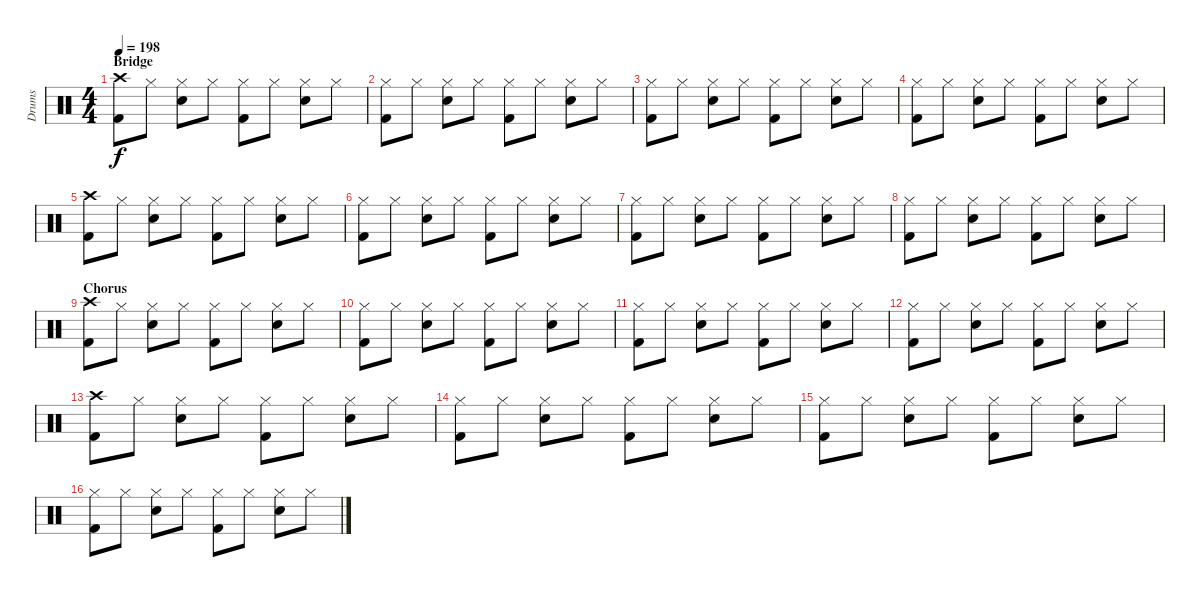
\track ("Drums" "Drums") {instrument percussion}
\staff {score}
\articulation defaults
\ts (4 4)
\section ("" "Bridge")
\tempo 198
\clef neutral
\ks c
("Crash high (hit)" "Kick (hit) 2").8{dy f} "Hi-Hat (closed)".8 ("Hi-Hat (closed)" "Snare (hit) 2").8 "Hi-Hat (closed)".8 ("Hi-Hat (closed)" "Kick (hit) 2").8 "Hi-Hat (closed)".8 ("Hi-Hat (closed)" "Snare (hit) 2").8 "Hi-Hat (closed)".8 |
("Hi-Hat (closed)" "Kick (hit) 2").8 "Hi-Hat (closed)".8 ("Hi-Hat (closed)" "Snare (hit) 2").8 "Hi-Hat (closed)".8 ("Hi-Hat (closed)" "Kick (hit) 2").8 "Hi-Hat (closed)".8 ("Hi-Hat (closed)" "Snare (hit) 2").8 "Hi-Hat (closed)".8 |
("Hi-Hat (closed)" "Kick (hit) 2").8 "Hi-Hat (closed)".8 ("Hi-Hat (closed)" "Snare (hit) 2").8 "Hi-Hat (closed)".8 ("Hi-Hat (closed)" "Kick (hit) 2").8 "Hi-Hat (closed)".8 ("Hi-Hat (closed)" "Snare (hit) 2").8 "Hi-Hat (closed)".8 |
("Hi-Hat (closed)" "Kick (hit) 2").8 "Hi-Hat (closed)".8 ("Hi-Hat (closed)" "Snare (hit) 2").8 "Hi-Hat (closed)".8 ("Hi-Hat (closed)" "Kick (hit) 2").8 "Hi-Hat (closed)".8 ("Hi-Hat (closed)" "Snare (hit) 2").8 "Hi-Hat (closed)".8 |
("Crash high (hit)" "Kick (hit) 2").8 "Hi-Hat (closed)".8 ("Hi-Hat (closed)" "Snare (hit) 2").8 "Hi-Hat (closed)".8 ("Hi-Hat (closed)" "Kick (hit) 2").8 "Hi-Hat (closed)".8 ("Hi-Hat (closed)" "Snare (hit) 2").8 "Hi-Hat (closed)".8 |
("Hi-Hat (closed)" "Kick (hit) 2").8 "Hi-Hat (closed)".8 ("Hi-Hat (closed)" "Snare (hit) 2").8 "Hi-Hat (closed)".8 ("Hi-Hat (closed)" "Kick (hit) 2").8 "Hi-Hat (closed)".8 ("Hi-Hat (closed)" "Snare (hit) 2").8 "Hi-Hat (closed)".8 |
("Hi-Hat (closed)" "Kick (hit) 2").8 "Hi-Hat (closed)".8 ("Hi-Hat (closed)" "Snare (hit) 2").8 "Hi-Hat (closed)".8 ("Hi-Hat (closed)" "Kick (hit) 2").8 "Hi-Hat (closed)".8 ("Hi-Hat (closed)" "Snare (hit) 2").8 "Hi-Hat (closed)".8 |
("Hi-Hat (closed)" "Kick (hit) 2").8 "Hi-Hat (closed)".8 ("Hi-Hat (closed)" "Snare (hit) 2").8 "Hi-Hat (closed)".8 ("Hi-Hat (closed)" "Kick (hit) 2").8 "Hi-Hat (closed)".8 ("Hi-Hat (closed)" "Snare (hit) 2").8 "Hi-Hat (closed)".8 |
\section ("" "Chorus")
("Crash high (hit)" "Kick (hit) 2").8 "Hi-Hat (closed)".8 ("Hi-Hat (closed)" "Snare (hit) 2").8 "Hi-Hat (closed)".8 ("Hi-Hat (closed)" "Kick (hit) 2").8 "Hi-Hat (closed)".8 ("Hi-Hat (closed)" "Snare (hit) 2").8 "Hi-Hat (closed)".8 |
("Hi-Hat (closed)" "Kick (hit) 2").8 "Hi-Hat (closed)".8 ("Hi-Hat (closed)" "Snare (hit) 2").8 "Hi-Hat (closed)".8 ("Hi-Hat (closed)" "Kick (hit) 2").8 "Hi-Hat (closed)".8 ("Hi-Hat (closed)" "Snare (hit) 2").8 "Hi-Hat (closed)".8 |
("Hi-Hat (closed)" "Kick (hit) 2").8 "Hi-Hat (closed)".8 ("Hi-Hat (closed)" "Snare (hit) 2").8 "Hi-Hat (closed)".8 ("Hi-Hat (closed)" "Kick (hit) 2").8 "Hi-Hat (closed)".8 ("Hi-Hat (closed)" "Snare (hit) 2").8 "Hi-Hat (closed)".8 |
("Hi-Hat (closed)" "Kick (hit) 2").8 "Hi-Hat (closed)".8 ("Hi-Hat (closed)" "Snare (hit) 2").8 "Hi-Hat (closed)".8 ("Hi-Hat (closed)" "Kick (hit) 2").8 "Hi-Hat (closed)".8 ("Hi-Hat (closed)" "Snare (hit) 2").8 "Hi-Hat (closed)".8 |
("Crash high (hit)" "Kick (hit) 2").8 "Hi-Hat (closed)".8 ("Hi-Hat (closed)" "Snare (hit) 2").8 "Hi-Hat (closed)".8 ("Hi-Hat (closed)" "Kick (hit) 2").8 "Hi-Hat (closed)".8 ("Hi-Hat (closed)" "Snare (hit) 2").8 "Hi-Hat (closed)".8 |
("Hi-Hat (closed)" "Kick (hit) 2").8 "Hi-Hat (closed)".8 ("Hi-Hat (closed)" "Snare (hit) 2").8 "Hi-Hat (closed)".8 ("Hi-Hat (closed)" "Kick (hit) 2").8 "Hi-Hat (closed)".8 ("Hi-Hat (closed)" "Snare (hit) 2").8 "Hi-Hat (closed)".8 |
("Hi-Hat (closed)" "Kick (hit) 2").8 "Hi-Hat (closed)".8 ("Hi-Hat (closed)" "Snare (hit) 2").8 "Hi-Hat (closed)".8 ("Hi-Hat (closed)" "Kick (hit) 2").8 "Hi-Hat (closed)".8 ("Hi-Hat (closed)" "Snare (hit) 2").8 "Hi-Hat (closed)".8 |
("Hi-Hat (closed)" "Kick (hit) 2").8 "Hi-Hat (closed)".8 ("Hi-Hat (closed)" "Snare (hit) 2").8 "Hi-Hat (closed)".8 ("Hi-Hat (closed)" "Kick (hit) 2").8 "Hi-Hat (closed)".8 ("Hi-Hat (closed)" "Snare (hit) 2").8 "Hi-Hat (closed)".8
